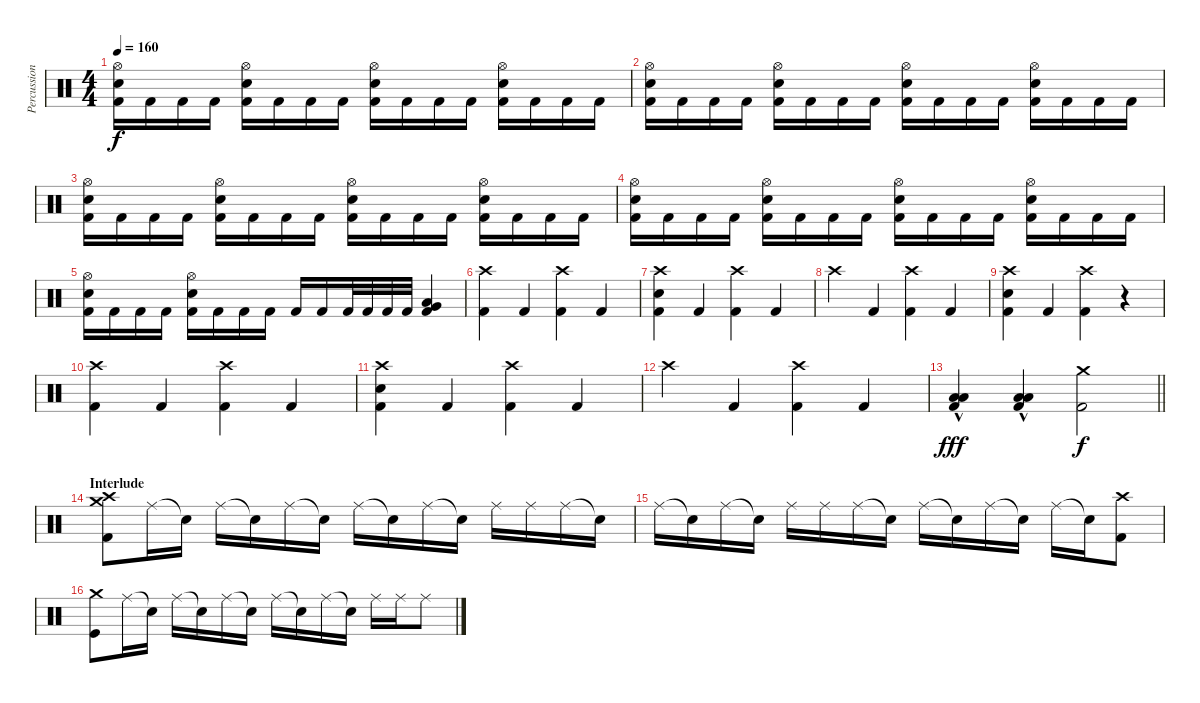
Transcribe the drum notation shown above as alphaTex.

\track ("Percussion" "Percussion") {instrument percussion}
\staff {score}
\articulation defaults
\ts (4 4)
\tempo 160
\clef neutral
\ks c
("Hi-Hat (open)" "Snare (hit) 2" "Kick (hit) 2").16{dy f} "Kick (hit) 2".16 "Kick (hit) 2".16 "Kick (hit) 2".16 ("Hi-Hat (open)" "Snare (hit) 2" "Kick (hit) 2").16 "Kick (hit) 2".16 "Kick (hit) 2".16 "Kick (hit) 2".16 ("Hi-Hat (open)" "Snare (hit) 2" "Kick (hit) 2").16 "Kick (hit) 2".16 "Kick (hit) 2".16 "Kick (hit) 2".16 ("Hi-Hat (open)" "Snare (hit) 2" "Kick (hit) 2").16 "Kick (hit) 2".16 "Kick (hit) 2".16 "Kick (hit) 2".16 |
("Hi-Hat (open)" "Snare (hit) 2" "Kick (hit) 2").16 "Kick (hit) 2".16 "Kick (hit) 2".16 "Kick (hit) 2".16 ("Hi-Hat (open)" "Snare (hit) 2" "Kick (hit) 2").16 "Kick (hit) 2".16 "Kick (hit) 2".16 "Kick (hit) 2".16 ("Hi-Hat (open)" "Snare (hit) 2" "Kick (hit) 2").16 "Kick (hit) 2".16 "Kick (hit) 2".16 "Kick (hit) 2".16 ("Hi-Hat (open)" "Snare (hit) 2" "Kick (hit) 2").16 "Kick (hit) 2".16 "Kick (hit) 2".16 "Kick (hit) 2".16 |
("Hi-Hat (open)" "Snare (hit) 2" "Kick (hit) 2").16 "Kick (hit) 2".16 "Kick (hit) 2".16 "Kick (hit) 2".16 ("Hi-Hat (open)" "Snare (hit) 2" "Kick (hit) 2").16 "Kick (hit) 2".16 "Kick (hit) 2".16 "Kick (hit) 2".16 ("Hi-Hat (open)" "Snare (hit) 2" "Kick (hit) 2").16 "Kick (hit) 2".16 "Kick (hit) 2".16 "Kick (hit) 2".16 ("Hi-Hat (open)" "Snare (hit) 2" "Kick (hit) 2").16 "Kick (hit) 2".16 "Kick (hit) 2".16 "Kick (hit) 2".16 |
("Hi-Hat (open)" "Snare (hit) 2" "Kick (hit) 2").16 "Kick (hit) 2".16 "Kick (hit) 2".16 "Kick (hit) 2".16 ("Hi-Hat (open)" "Snare (hit) 2" "Kick (hit) 2").16 "Kick (hit) 2".16 "Kick (hit) 2".16 "Kick (hit) 2".16 ("Hi-Hat (open)" "Snare (hit) 2" "Kick (hit) 2").16 "Kick (hit) 2".16 "Kick (hit) 2".16 "Kick (hit) 2".16 ("Hi-Hat (open)" "Snare (hit) 2" "Kick (hit) 2").16 "Kick (hit) 2".16 "Kick (hit) 2".16 "Kick (hit) 2".16 |
("Hi-Hat (open)" "Snare (hit) 2" "Kick (hit) 2").16 "Kick (hit) 2".16 "Kick (hit) 2".16 "Kick (hit) 2".16 ("Hi-Hat (open)" "Snare (hit) 2" "Kick (hit) 2").16 "Kick (hit) 2".16 "Kick (hit) 2".16 "Kick (hit) 2".16 "Kick (hit) 2".16 "Kick (hit) 2".16 "Kick (hit) 2".32 "Kick (hit) 2".32 "Kick (hit) 2".32 "Kick (hit) 2".32 ("Very Low Tom (hit)" "Low Floor Tom (hit)" "Kick (hit) 2").4 |
("Crash high (hit)" "Kick (hit) 2").4 "Kick (hit) 2".4 ("Crash high (hit)" "Kick (hit) 2").4 "Kick (hit) 2".4 |
("Crash high (hit)" "Snare (hit) 2" "Kick (hit) 2").4 "Kick (hit) 2".4 ("Crash high (hit)" "Kick (hit) 2").4 "Kick (hit) 2".4 |
"Crash high (hit)".4 "Kick (hit) 2".4 ("Crash high (hit)" "Kick (hit) 2").4 "Kick (hit) 2".4 |
("Crash high (hit)" "Snare (hit) 2" "Kick (hit) 2").4 "Kick (hit) 2".4 ("Crash high (hit)" "Kick (hit) 2").4 r.4 |
("Crash high (hit)" "Kick (hit) 2").4 "Kick (hit) 2".4 ("Crash high (hit)" "Kick (hit) 2").4 "Kick (hit) 2".4 |
("Crash high (hit)" "Snare (hit) 2" "Kick (hit) 2").4 "Kick (hit) 2".4 ("Crash high (hit)" "Kick (hit) 2").4 "Kick (hit) 2".4 |
"Crash high (hit)".4 "Kick (hit) 2".4 ("Crash high (hit)" "Kick (hit) 2").4 "Kick (hit) 2".4 |
\barLineRight lightlight
("Low Floor Tom (hit)"{hac} "Low Floor Tom (hit)"{hac} "Kick (hit) 2"{hac}).4{dy fff} ("Low Floor Tom (hit)"{hac} "Low Floor Tom (hit)"{hac} "Kick (hit) 2"{hac}).4 ("Crash medium (hit)" "Kick (hit) 2").2{dy f} |
\section ("" "Interlude")
("Crash medium (hit)" "Crash high (hit)" "Kick (hit) 2").8 "Ride (middle)".16 "Snare (hit)"{t}.16 "Ride (middle)".16 "Snare (hit)"{t}.16 "Ride (middle)".16 "Snare (hit)"{t}.16 "Ride (middle)".16 "Snare (hit)"{t}.16 "Ride (middle)".16 "Snare (hit)"{t}.16 "Ride (middle)".16 "Ride (middle)".16 "Ride (middle)".16 "Snare (hit)"{t}.16 |
"Ride (middle)".16 "Snare (hit)"{t}.16 "Ride (middle)".16 "Snare (hit)"{t}.16 "Ride (middle)".16 "Ride (middle)".16 "Ride (middle)".16 "Snare (hit)"{t}.16 "Ride (middle)".16 "Snare (hit)"{t}.16 "Ride (middle)".16 "Snare (hit)"{t}.16 "Ride (middle)".16 "Snare (hit)"{t}.16 ("Crash high (hit)" "Kick (hit) 2").8 |
("Crash medium (hit)" "Kick (hit)").8 "Ride (middle)".16 "Snare (hit)"{t}.16 "Ride (middle)".16 "Snare (hit)"{t}.16 "Ride (middle)".16 "Snare (hit)"{t}.16 "Ride (middle)".16 "Snare (hit)"{t}.16 "Ride (middle)".16 "Snare (hit)"{t}.16 "Ride (middle)".16 "Ride (middle)".16 "Ride (middle)".8
